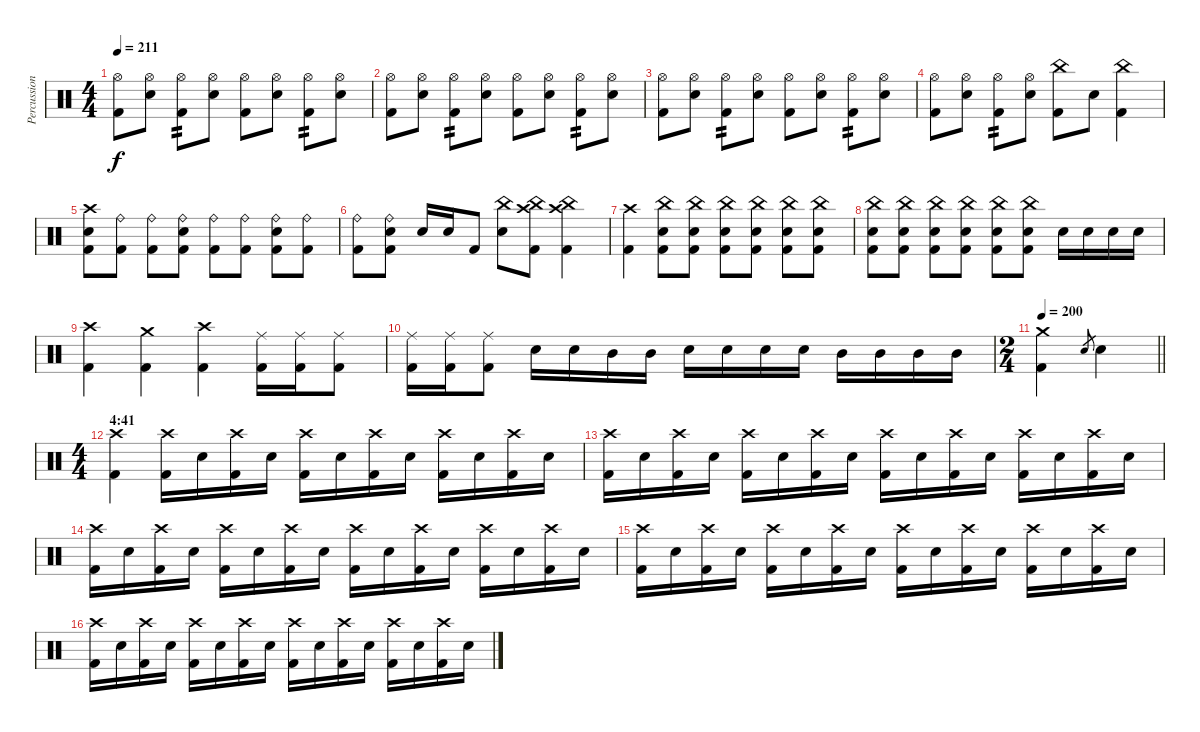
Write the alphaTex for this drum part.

\track ("Percussion" "Percussion") {instrument percussion}
\staff {score}
\articulation defaults
\ts (4 4)
\tempo 211
\clef neutral
\ks c
("Hi-Hat (open)" "Kick (hit) 2").8{dy f} ("Hi-Hat (open)" "Electric Snare (hit)").8 ("Hi-Hat (open)" "Kick (hit) 2").8{tp 2} ("Hi-Hat (open)" "Electric Snare (hit)").8 ("Hi-Hat (open)" "Kick (hit) 2").8 ("Hi-Hat (open)" "Electric Snare (hit)").8 ("Hi-Hat (open)" "Kick (hit) 2").8{tp 2} ("Hi-Hat (open)" "Electric Snare (hit)").8 |
("Hi-Hat (open)" "Kick (hit) 2").8 ("Hi-Hat (open)" "Electric Snare (hit)").8 ("Hi-Hat (open)" "Kick (hit) 2").8{tp 2} ("Hi-Hat (open)" "Electric Snare (hit)").8 ("Hi-Hat (open)" "Kick (hit) 2").8 ("Hi-Hat (open)" "Electric Snare (hit)").8 ("Hi-Hat (open)" "Kick (hit) 2").8{tp 2} ("Hi-Hat (open)" "Electric Snare (hit)").8 |
("Hi-Hat (open)" "Kick (hit) 2").8 ("Hi-Hat (open)" "Electric Snare (hit)").8 ("Hi-Hat (open)" "Kick (hit) 2").8{tp 2} ("Hi-Hat (open)" "Electric Snare (hit)").8 ("Hi-Hat (open)" "Kick (hit) 2").8 ("Hi-Hat (open)" "Electric Snare (hit)").8 ("Hi-Hat (open)" "Kick (hit) 2").8{tp 2} ("Hi-Hat (open)" "Electric Snare (hit)").8 |
("Hi-Hat (open)" "Kick (hit) 2").8 ("Hi-Hat (open)" "Electric Snare (hit)").8 ("Hi-Hat (open)" "Kick (hit) 2").8{tp 2} ("Hi-Hat (open)" "Electric Snare (hit)").8 ("China (hit)" "Kick (hit) 2").8 "Electric Snare (hit)".8 ("China (hit)" "Kick (hit) 2").4 |
("Kick (hit) 2" "Crash high (hit)" "Electric Snare (hit)").8 ("Kick (hit) 2" "Ride (bell)").8 ("Kick (hit) 2" "Ride (bell)").8 ("Kick (hit) 2" "Electric Snare (hit)" "Ride (bell)").8 ("Kick (hit) 2" "Ride (bell)").8 ("Kick (hit) 2" "Ride (bell)").8 ("Kick (hit) 2" "Electric Snare (hit)" "Ride (bell)").8 ("Kick (hit) 2" "Ride (bell)").8 |
("Ride (bell)" "Kick (hit) 2").8 ("Ride (bell)" "Electric Snare (hit)" "Kick (hit) 2").8 "Electric Snare (hit)".16 "Electric Snare (hit)".16 "Kick (hit) 2".8 ("China (hit)" "Electric Snare (hit)").8 ("China (hit)" "Crash high (hit)" "Kick (hit) 2").8 ("China (hit)" "Crash high (hit)" "Kick (hit) 2").4 |
("Crash high (hit)" "Kick (hit) 2").4 ("China (hit)" "Kick (hit) 2" "Electric Snare (hit)").8 ("China (hit)" "Kick (hit) 2" "Electric Snare (hit)").8 ("China (hit)" "Kick (hit) 2" "Electric Snare (hit)").8 ("China (hit)" "Kick (hit) 2" "Electric Snare (hit)").8 ("China (hit)" "Kick (hit) 2" "Electric Snare (hit)").8 ("China (hit)" "Kick (hit) 2" "Electric Snare (hit)").8 |
("China (hit)" "Kick (hit) 2" "Electric Snare (hit)").8 ("China (hit)" "Kick (hit) 2" "Electric Snare (hit)").8 ("China (hit)" "Kick (hit) 2" "Electric Snare (hit)").8 ("China (hit)" "Kick (hit) 2" "Electric Snare (hit)").8 ("China (hit)" "Kick (hit) 2" "Electric Snare (hit)").8 ("China (hit)" "Kick (hit) 2" "Electric Snare (hit)").8 "Electric Snare (hit)".16 "Electric Snare (hit)".16 "Electric Snare (hit)".16 "Electric Snare (hit)".16 |
("Crash high (hit)" "Kick (hit) 2").4 ("Crash medium (hit)" "Kick (hit) 2").4 ("Crash high (hit)" "Kick (hit) 2").4 ("Kick (hit) 2" "Ride (middle)").16 ("Kick (hit) 2" "Ride (middle)").16 ("Kick (hit) 2" "Ride (middle)").8 |
("Kick (hit) 2" "Ride (middle)").16 ("Kick (hit) 2" "Ride (middle)").16 ("Kick (hit) 2" "Ride (middle)").8 "Electric Snare (hit)".16 "Electric Snare (hit)".16 "Mid Tom (hit)".16 "Mid Tom (hit)".16 "Electric Snare (hit)".16 "Electric Snare (hit)".16 "Electric Snare (hit)".16 "Electric Snare (hit)".16 "Mid Tom (hit)".16 "Mid Tom (hit)".16 "Mid Tom (hit)".16 "Mid Tom (hit)".16 |
\ts (2 4)
\tempo 200
\barLineRight lightlight
("Crash medium (hit)" "Kick (hit) 2").4 "Electric Snare (hit)".8{gr} "Electric Snare (hit)".4 |
\ts (4 4)
\section ("" "4:41")
("Crash high (hit)" "Kick (hit) 2").4 ("Crash high (hit)" "Kick (hit) 2").16 "Electric Snare (hit)".16 ("Crash high (hit)" "Kick (hit) 2").16 "Electric Snare (hit)".16 ("Crash high (hit)" "Kick (hit) 2").16 "Electric Snare (hit)".16 ("Crash high (hit)" "Kick (hit) 2").16 "Electric Snare (hit)".16 ("Crash high (hit)" "Kick (hit) 2").16 "Electric Snare (hit)".16 ("Crash high (hit)" "Kick (hit) 2").16 "Electric Snare (hit)".16 |
("Crash high (hit)" "Kick (hit) 2").16 "Electric Snare (hit)".16 ("Crash high (hit)" "Kick (hit) 2").16 "Electric Snare (hit)".16 ("Crash high (hit)" "Kick (hit) 2").16 "Electric Snare (hit)".16 ("Crash high (hit)" "Kick (hit) 2").16 "Electric Snare (hit)".16 ("Crash high (hit)" "Kick (hit) 2").16 "Electric Snare (hit)".16 ("Crash high (hit)" "Kick (hit) 2").16 "Electric Snare (hit)".16 ("Crash high (hit)" "Kick (hit) 2").16 "Electric Snare (hit)".16 ("Crash high (hit)" "Kick (hit) 2").16 "Electric Snare (hit)".16 |
("Crash high (hit)" "Kick (hit) 2").16 "Electric Snare (hit)".16 ("Crash high (hit)" "Kick (hit) 2").16 "Electric Snare (hit)".16 ("Crash high (hit)" "Kick (hit) 2").16 "Electric Snare (hit)".16 ("Crash high (hit)" "Kick (hit) 2").16 "Electric Snare (hit)".16 ("Crash high (hit)" "Kick (hit) 2").16 "Electric Snare (hit)".16 ("Crash high (hit)" "Kick (hit) 2").16 "Electric Snare (hit)".16 ("Crash high (hit)" "Kick (hit) 2").16 "Electric Snare (hit)".16 ("Crash high (hit)" "Kick (hit) 2").16 "Electric Snare (hit)".16 |
("Crash high (hit)" "Kick (hit) 2").16 "Electric Snare (hit)".16 ("Crash high (hit)" "Kick (hit) 2").16 "Electric Snare (hit)".16 ("Crash high (hit)" "Kick (hit) 2").16 "Electric Snare (hit)".16 ("Crash high (hit)" "Kick (hit) 2").16 "Electric Snare (hit)".16 ("Crash high (hit)" "Kick (hit) 2").16 "Electric Snare (hit)".16 ("Crash high (hit)" "Kick (hit) 2").16 "Electric Snare (hit)".16 ("Crash high (hit)" "Kick (hit) 2").16 "Electric Snare (hit)".16 ("Crash high (hit)" "Kick (hit) 2").16 "Electric Snare (hit)".16 |
("Crash high (hit)" "Kick (hit) 2").16 "Electric Snare (hit)".16 ("Crash high (hit)" "Kick (hit) 2").16 "Electric Snare (hit)".16 ("Crash high (hit)" "Kick (hit) 2").16 "Electric Snare (hit)".16 ("Crash high (hit)" "Kick (hit) 2").16 "Electric Snare (hit)".16 ("Crash high (hit)" "Kick (hit) 2").16 "Electric Snare (hit)".16 ("Crash high (hit)" "Kick (hit) 2").16 "Electric Snare (hit)".16 ("Crash high (hit)" "Kick (hit) 2").16 "Electric Snare (hit)".16 ("Crash high (hit)" "Kick (hit) 2").16 "Electric Snare (hit)".16
